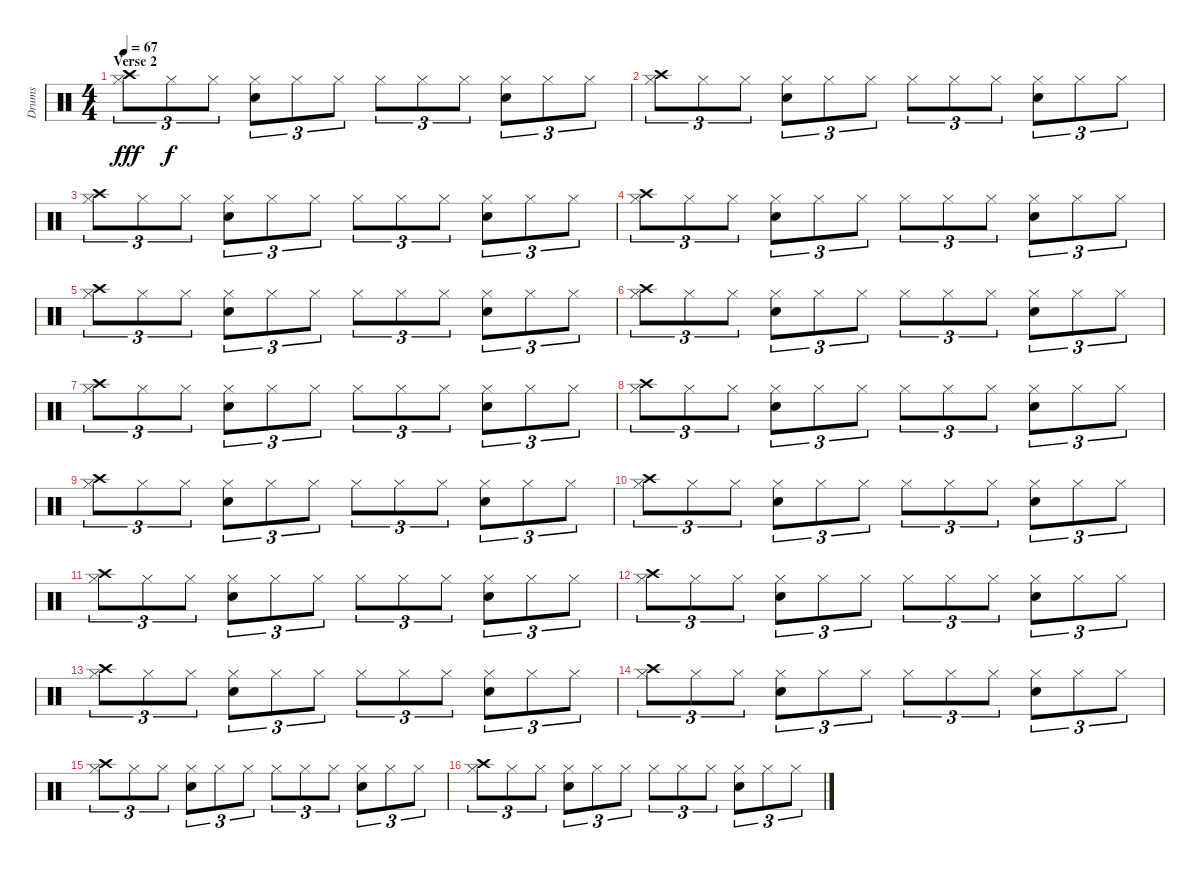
\track ("Drums" "Drums") {instrument percussion}
\staff {score}
\articulation defaults
\ts (4 4)
\section ("" "Verse 2")
\tempo 67
\clef neutral
\ks c
("Crash high (hit)" "Hi-Hat (closed)").8{tu (3 2) dy fff volume 10} "Hi-Hat (closed)".8{tu (3 2) dy f} "Hi-Hat (closed)".8{tu (3 2)} ("Hi-Hat (closed)" "Snare (hit) 2").8{tu (3 2)} "Hi-Hat (closed)".8{tu (3 2)} "Hi-Hat (closed)".8{tu (3 2)} "Hi-Hat (closed)".8{tu (3 2)} "Hi-Hat (closed)".8{tu (3 2)} "Hi-Hat (closed)".8{tu (3 2)} ("Hi-Hat (closed)" "Snare (hit) 2").8{tu (3 2)} "Hi-Hat (closed)".8{tu (3 2)} "Hi-Hat (closed)".8{tu (3 2)} |
("Crash high (hit)" "Hi-Hat (closed)").8{tu (3 2)} "Hi-Hat (closed)".8{tu (3 2)} "Hi-Hat (closed)".8{tu (3 2)} ("Hi-Hat (closed)" "Snare (hit) 2").8{tu (3 2)} "Hi-Hat (closed)".8{tu (3 2)} "Hi-Hat (closed)".8{tu (3 2)} "Hi-Hat (closed)".8{tu (3 2)} "Hi-Hat (closed)".8{tu (3 2)} "Hi-Hat (closed)".8{tu (3 2)} ("Hi-Hat (closed)" "Snare (hit) 2").8{tu (3 2)} "Hi-Hat (closed)".8{tu (3 2)} "Hi-Hat (closed)".8{tu (3 2)} |
("Crash high (hit)" "Hi-Hat (closed)").8{tu (3 2)} "Hi-Hat (closed)".8{tu (3 2)} "Hi-Hat (closed)".8{tu (3 2)} ("Hi-Hat (closed)" "Snare (hit) 2").8{tu (3 2)} "Hi-Hat (closed)".8{tu (3 2)} "Hi-Hat (closed)".8{tu (3 2)} "Hi-Hat (closed)".8{tu (3 2)} "Hi-Hat (closed)".8{tu (3 2)} "Hi-Hat (closed)".8{tu (3 2)} ("Hi-Hat (closed)" "Snare (hit) 2").8{tu (3 2)} "Hi-Hat (closed)".8{tu (3 2)} "Hi-Hat (closed)".8{tu (3 2)} |
("Crash high (hit)" "Hi-Hat (closed)").8{tu (3 2)} "Hi-Hat (closed)".8{tu (3 2)} "Hi-Hat (closed)".8{tu (3 2)} ("Hi-Hat (closed)" "Snare (hit) 2").8{tu (3 2)} "Hi-Hat (closed)".8{tu (3 2)} "Hi-Hat (closed)".8{tu (3 2)} "Hi-Hat (closed)".8{tu (3 2)} "Hi-Hat (closed)".8{tu (3 2)} "Hi-Hat (closed)".8{tu (3 2)} ("Hi-Hat (closed)" "Snare (hit) 2").8{tu (3 2)} "Hi-Hat (closed)".8{tu (3 2)} "Hi-Hat (closed)".8{tu (3 2)} |
("Crash high (hit)" "Hi-Hat (closed)").8{tu (3 2)} "Hi-Hat (closed)".8{tu (3 2)} "Hi-Hat (closed)".8{tu (3 2)} ("Hi-Hat (closed)" "Snare (hit) 2").8{tu (3 2)} "Hi-Hat (closed)".8{tu (3 2)} "Hi-Hat (closed)".8{tu (3 2)} "Hi-Hat (closed)".8{tu (3 2)} "Hi-Hat (closed)".8{tu (3 2)} "Hi-Hat (closed)".8{tu (3 2)} ("Hi-Hat (closed)" "Snare (hit) 2").8{tu (3 2)} "Hi-Hat (closed)".8{tu (3 2)} "Hi-Hat (closed)".8{tu (3 2)} |
("Crash high (hit)" "Hi-Hat (closed)").8{tu (3 2)} "Hi-Hat (closed)".8{tu (3 2)} "Hi-Hat (closed)".8{tu (3 2)} ("Hi-Hat (closed)" "Snare (hit) 2").8{tu (3 2)} "Hi-Hat (closed)".8{tu (3 2)} "Hi-Hat (closed)".8{tu (3 2)} "Hi-Hat (closed)".8{tu (3 2)} "Hi-Hat (closed)".8{tu (3 2)} "Hi-Hat (closed)".8{tu (3 2)} ("Hi-Hat (closed)" "Snare (hit) 2").8{tu (3 2)} "Hi-Hat (closed)".8{tu (3 2)} "Hi-Hat (closed)".8{tu (3 2)} |
("Crash high (hit)" "Hi-Hat (closed)").8{tu (3 2)} "Hi-Hat (closed)".8{tu (3 2)} "Hi-Hat (closed)".8{tu (3 2)} ("Hi-Hat (closed)" "Snare (hit) 2").8{tu (3 2)} "Hi-Hat (closed)".8{tu (3 2)} "Hi-Hat (closed)".8{tu (3 2)} "Hi-Hat (closed)".8{tu (3 2)} "Hi-Hat (closed)".8{tu (3 2)} "Hi-Hat (closed)".8{tu (3 2)} ("Hi-Hat (closed)" "Snare (hit) 2").8{tu (3 2)} "Hi-Hat (closed)".8{tu (3 2)} "Hi-Hat (closed)".8{tu (3 2)} |
("Crash high (hit)" "Hi-Hat (closed)").8{tu (3 2)} "Hi-Hat (closed)".8{tu (3 2)} "Hi-Hat (closed)".8{tu (3 2)} ("Hi-Hat (closed)" "Snare (hit) 2").8{tu (3 2)} "Hi-Hat (closed)".8{tu (3 2)} "Hi-Hat (closed)".8{tu (3 2)} "Hi-Hat (closed)".8{tu (3 2)} "Hi-Hat (closed)".8{tu (3 2)} "Hi-Hat (closed)".8{tu (3 2)} ("Hi-Hat (closed)" "Snare (hit) 2").8{tu (3 2)} "Hi-Hat (closed)".8{tu (3 2)} "Hi-Hat (closed)".8{tu (3 2)} |
("Crash high (hit)" "Hi-Hat (closed)").8{tu (3 2)} "Hi-Hat (closed)".8{tu (3 2)} "Hi-Hat (closed)".8{tu (3 2)} ("Hi-Hat (closed)" "Snare (hit) 2").8{tu (3 2)} "Hi-Hat (closed)".8{tu (3 2)} "Hi-Hat (closed)".8{tu (3 2)} "Hi-Hat (closed)".8{tu (3 2)} "Hi-Hat (closed)".8{tu (3 2)} "Hi-Hat (closed)".8{tu (3 2)} ("Hi-Hat (closed)" "Snare (hit) 2").8{tu (3 2)} "Hi-Hat (closed)".8{tu (3 2)} "Hi-Hat (closed)".8{tu (3 2)} |
("Crash high (hit)" "Hi-Hat (closed)").8{tu (3 2)} "Hi-Hat (closed)".8{tu (3 2)} "Hi-Hat (closed)".8{tu (3 2)} ("Hi-Hat (closed)" "Snare (hit) 2").8{tu (3 2)} "Hi-Hat (closed)".8{tu (3 2)} "Hi-Hat (closed)".8{tu (3 2)} "Hi-Hat (closed)".8{tu (3 2)} "Hi-Hat (closed)".8{tu (3 2)} "Hi-Hat (closed)".8{tu (3 2)} ("Hi-Hat (closed)" "Snare (hit) 2").8{tu (3 2)} "Hi-Hat (closed)".8{tu (3 2)} "Hi-Hat (closed)".8{tu (3 2)} |
("Crash high (hit)" "Hi-Hat (closed)").8{tu (3 2)} "Hi-Hat (closed)".8{tu (3 2)} "Hi-Hat (closed)".8{tu (3 2)} ("Hi-Hat (closed)" "Snare (hit) 2").8{tu (3 2)} "Hi-Hat (closed)".8{tu (3 2)} "Hi-Hat (closed)".8{tu (3 2)} "Hi-Hat (closed)".8{tu (3 2)} "Hi-Hat (closed)".8{tu (3 2)} "Hi-Hat (closed)".8{tu (3 2)} ("Hi-Hat (closed)" "Snare (hit) 2").8{tu (3 2)} "Hi-Hat (closed)".8{tu (3 2)} "Hi-Hat (closed)".8{tu (3 2)} |
("Crash high (hit)" "Hi-Hat (closed)").8{tu (3 2)} "Hi-Hat (closed)".8{tu (3 2)} "Hi-Hat (closed)".8{tu (3 2)} ("Hi-Hat (closed)" "Snare (hit) 2").8{tu (3 2)} "Hi-Hat (closed)".8{tu (3 2)} "Hi-Hat (closed)".8{tu (3 2)} "Hi-Hat (closed)".8{tu (3 2)} "Hi-Hat (closed)".8{tu (3 2)} "Hi-Hat (closed)".8{tu (3 2)} ("Hi-Hat (closed)" "Snare (hit) 2").8{tu (3 2)} "Hi-Hat (closed)".8{tu (3 2)} "Hi-Hat (closed)".8{tu (3 2)} |
("Crash high (hit)" "Hi-Hat (closed)").8{tu (3 2)} "Hi-Hat (closed)".8{tu (3 2)} "Hi-Hat (closed)".8{tu (3 2)} ("Hi-Hat (closed)" "Snare (hit) 2").8{tu (3 2)} "Hi-Hat (closed)".8{tu (3 2)} "Hi-Hat (closed)".8{tu (3 2)} "Hi-Hat (closed)".8{tu (3 2)} "Hi-Hat (closed)".8{tu (3 2)} "Hi-Hat (closed)".8{tu (3 2)} ("Hi-Hat (closed)" "Snare (hit) 2").8{tu (3 2)} "Hi-Hat (closed)".8{tu (3 2)} "Hi-Hat (closed)".8{tu (3 2)} |
("Crash high (hit)" "Hi-Hat (closed)").8{tu (3 2)} "Hi-Hat (closed)".8{tu (3 2)} "Hi-Hat (closed)".8{tu (3 2)} ("Hi-Hat (closed)" "Snare (hit) 2").8{tu (3 2)} "Hi-Hat (closed)".8{tu (3 2)} "Hi-Hat (closed)".8{tu (3 2)} "Hi-Hat (closed)".8{tu (3 2)} "Hi-Hat (closed)".8{tu (3 2)} "Hi-Hat (closed)".8{tu (3 2)} ("Hi-Hat (closed)" "Snare (hit) 2").8{tu (3 2)} "Hi-Hat (closed)".8{tu (3 2)} "Hi-Hat (closed)".8{tu (3 2)} |
("Crash high (hit)" "Hi-Hat (closed)").8{tu (3 2)} "Hi-Hat (closed)".8{tu (3 2)} "Hi-Hat (closed)".8{tu (3 2)} ("Hi-Hat (closed)" "Snare (hit) 2").8{tu (3 2)} "Hi-Hat (closed)".8{tu (3 2)} "Hi-Hat (closed)".8{tu (3 2)} "Hi-Hat (closed)".8{tu (3 2)} "Hi-Hat (closed)".8{tu (3 2)} "Hi-Hat (closed)".8{tu (3 2)} ("Hi-Hat (closed)" "Snare (hit) 2").8{tu (3 2)} "Hi-Hat (closed)".8{tu (3 2)} "Hi-Hat (closed)".8{tu (3 2)} |
("Crash high (hit)" "Hi-Hat (closed)").8{tu (3 2)} "Hi-Hat (closed)".8{tu (3 2)} "Hi-Hat (closed)".8{tu (3 2)} ("Hi-Hat (closed)" "Snare (hit) 2").8{tu (3 2)} "Hi-Hat (closed)".8{tu (3 2)} "Hi-Hat (closed)".8{tu (3 2)} "Hi-Hat (closed)".8{tu (3 2)} "Hi-Hat (closed)".8{tu (3 2)} "Hi-Hat (closed)".8{tu (3 2)} ("Hi-Hat (closed)" "Snare (hit) 2").8{tu (3 2)} "Hi-Hat (closed)".8{tu (3 2)} "Hi-Hat (closed)".8{tu (3 2)}
